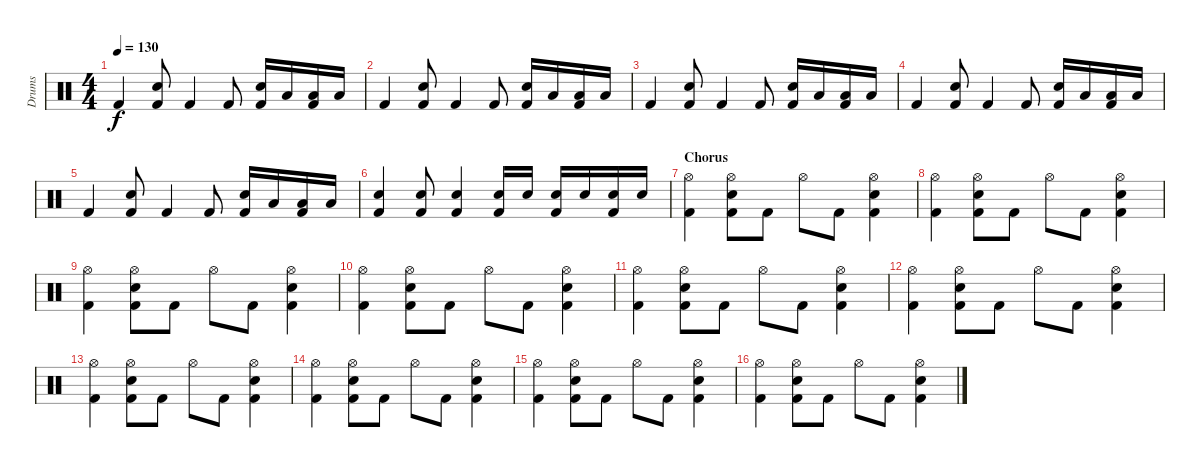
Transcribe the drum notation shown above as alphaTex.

\track ("Drums" "Drums") {instrument percussion}
\staff {score}
\articulation defaults
\ts (4 4)
\tempo 130
\clef neutral
\ks c "Kick (hit) 2".4{dy f}
("Kick (hit) 2" "Snare (hit) 2").8 "Kick (hit) 2".4 "Kick (hit) 2".8 ("Kick (hit) 2" "Snare (hit) 2").16 "Low Tom (hit)".16 ("Kick (hit) 2" "Low Tom (hit)").16 "Low Tom (hit)".16 |
"Kick (hit) 2".4 ("Kick (hit) 2" "Snare (hit) 2").8 "Kick (hit) 2".4 "Kick (hit) 2".8 ("Kick (hit) 2" "Snare (hit) 2").16 "Low Tom (hit)".16 ("Kick (hit) 2" "Low Tom (hit)").16 "Low Tom (hit)".16 |
"Kick (hit) 2".4 ("Kick (hit) 2" "Snare (hit) 2").8 "Kick (hit) 2".4 "Kick (hit) 2".8 ("Kick (hit) 2" "Snare (hit) 2").16 "Low Tom (hit)".16 ("Kick (hit) 2" "Low Tom (hit)").16 "Low Tom (hit)".16 |
"Kick (hit) 2".4 ("Kick (hit) 2" "Snare (hit) 2").8 "Kick (hit) 2".4 "Kick (hit) 2".8 ("Kick (hit) 2" "Snare (hit) 2").16 "Low Tom (hit)".16 ("Kick (hit) 2" "Low Tom (hit)").16 "Low Tom (hit)".16 |
"Kick (hit) 2".4 ("Kick (hit) 2" "Snare (hit) 2").8 "Kick (hit) 2".4 "Kick (hit) 2".8 ("Kick (hit) 2" "Snare (hit) 2").16 "Low Tom (hit)".16 ("Kick (hit) 2" "Low Tom (hit)").16 "Low Tom (hit)".16 |
("Kick (hit) 2" "Snare (hit) 2").4 ("Kick (hit) 2" "Snare (hit) 2").8 ("Kick (hit) 2" "Snare (hit) 2").4 ("Kick (hit) 2" "Snare (hit) 2").16 "Snare (hit) 2".16 ("Kick (hit) 2" "Snare (hit) 2").16 "Snare (hit) 2".16 ("Kick (hit) 2" "Snare (hit) 2").16 "Snare (hit) 2".16 |
\section ("" "Chorus")
("Kick (hit) 2" "Hi-Hat (open)").4 ("Kick (hit) 2" "Hi-Hat (open)" "Snare (hit) 2").8 "Kick (hit) 2".8 "Hi-Hat (open)".8 "Kick (hit) 2".8 ("Kick (hit) 2" "Hi-Hat (open)" "Snare (hit) 2").4 |
("Kick (hit) 2" "Hi-Hat (open)").4 ("Kick (hit) 2" "Hi-Hat (open)" "Snare (hit) 2").8 "Kick (hit) 2".8 "Hi-Hat (open)".8 "Kick (hit) 2".8 ("Kick (hit) 2" "Hi-Hat (open)" "Snare (hit) 2").4 |
("Kick (hit) 2" "Hi-Hat (open)").4 ("Kick (hit) 2" "Hi-Hat (open)" "Snare (hit) 2").8 "Kick (hit) 2".8 "Hi-Hat (open)".8 "Kick (hit) 2".8 ("Kick (hit) 2" "Hi-Hat (open)" "Snare (hit) 2").4 |
("Kick (hit) 2" "Hi-Hat (open)").4 ("Kick (hit) 2" "Hi-Hat (open)" "Snare (hit) 2").8 "Kick (hit) 2".8 "Hi-Hat (open)".8 "Kick (hit) 2".8 ("Kick (hit) 2" "Hi-Hat (open)" "Snare (hit) 2").4 |
("Kick (hit) 2" "Hi-Hat (open)").4 ("Kick (hit) 2" "Hi-Hat (open)" "Snare (hit) 2").8 "Kick (hit) 2".8 "Hi-Hat (open)".8 "Kick (hit) 2".8 ("Kick (hit) 2" "Hi-Hat (open)" "Snare (hit) 2").4 |
("Kick (hit) 2" "Hi-Hat (open)").4 ("Kick (hit) 2" "Hi-Hat (open)" "Snare (hit) 2").8 "Kick (hit) 2".8 "Hi-Hat (open)".8 "Kick (hit) 2".8 ("Kick (hit) 2" "Hi-Hat (open)" "Snare (hit) 2").4 |
("Kick (hit) 2" "Hi-Hat (open)").4 ("Kick (hit) 2" "Hi-Hat (open)" "Snare (hit) 2").8 "Kick (hit) 2".8 "Hi-Hat (open)".8 "Kick (hit) 2".8 ("Kick (hit) 2" "Hi-Hat (open)" "Snare (hit) 2").4 |
("Kick (hit) 2" "Hi-Hat (open)").4 ("Kick (hit) 2" "Hi-Hat (open)" "Snare (hit) 2").8 "Kick (hit) 2".8 "Hi-Hat (open)".8 "Kick (hit) 2".8 ("Kick (hit) 2" "Hi-Hat (open)" "Snare (hit) 2").4 |
("Kick (hit) 2" "Hi-Hat (open)").4 ("Kick (hit) 2" "Hi-Hat (open)" "Snare (hit) 2").8 "Kick (hit) 2".8 "Hi-Hat (open)".8 "Kick (hit) 2".8 ("Kick (hit) 2" "Hi-Hat (open)" "Snare (hit) 2").4 |
("Kick (hit) 2" "Hi-Hat (open)").4 ("Kick (hit) 2" "Hi-Hat (open)" "Snare (hit) 2").8 "Kick (hit) 2".8 "Hi-Hat (open)".8 "Kick (hit) 2".8 ("Kick (hit) 2" "Hi-Hat (open)" "Snare (hit) 2").4
